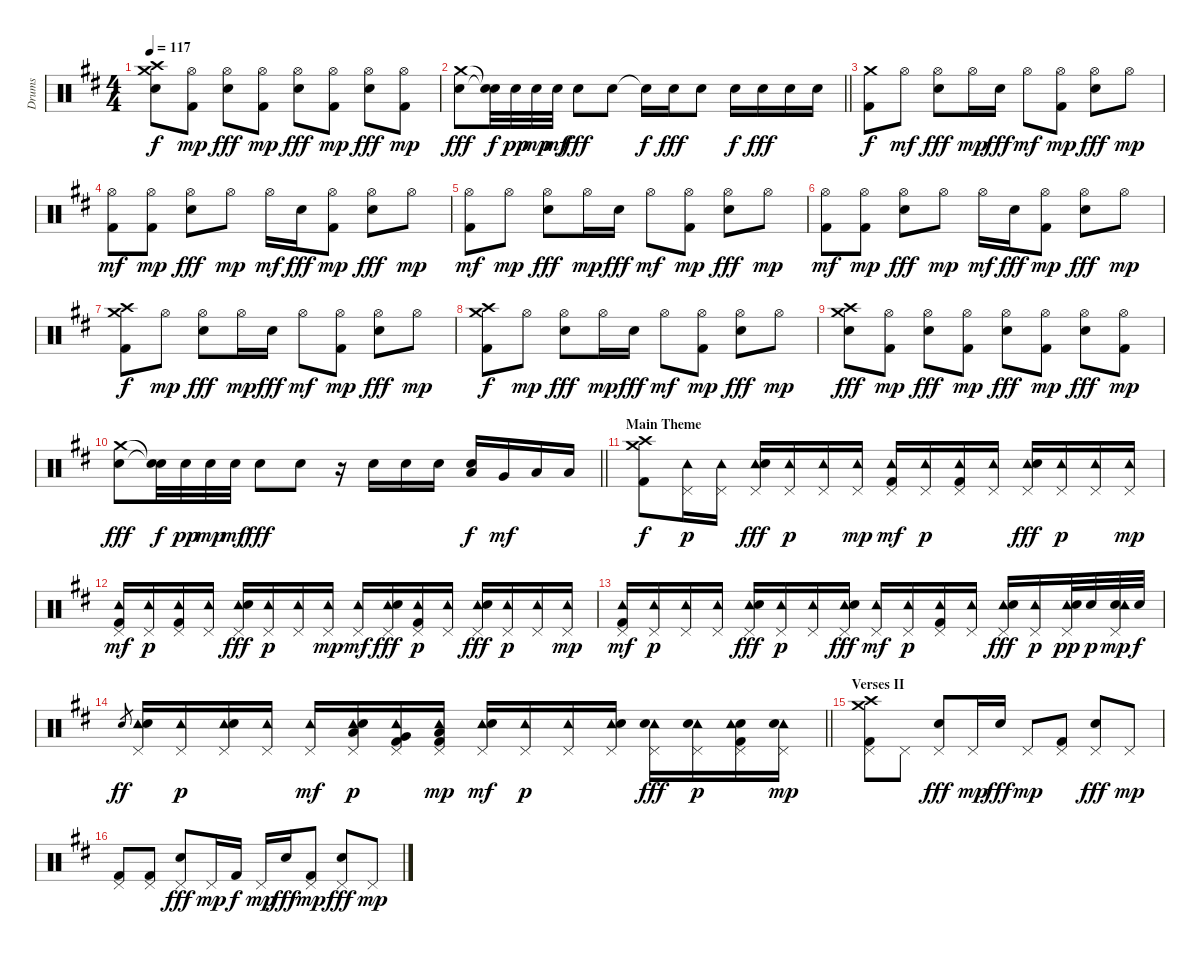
\track ("Drums" "Drums") {instrument percussion}
\staff {score}
\articulation defaults
\ts (4 4)
\tempo 117
\clef neutral
\ks d
("Crash medium (hit)" "Crash high (hit)" "Electric Snare (hit)").8{dy f} ("Hi-Hat (open)" "Kick (hit) 2").8{dy mp} ("Hi-Hat (open)" "Electric Snare (hit)").8{dy fff} ("Hi-Hat (open)" "Kick (hit) 2").8{dy mp} ("Hi-Hat (open)" "Electric Snare (hit)").8{dy fff} ("Hi-Hat (open)" "Kick (hit) 2").8{dy mp} ("Hi-Hat (open)" "Electric Snare (hit)").8{dy fff} ("Hi-Hat (open)" "Kick (hit) 2").8{dy mp} |
\barLineRight lightlight
("Crash medium (hit)" "Electric Snare (hit)").8{dy fff} ("Snare (hit)"{t} "Snare (hit)"{t}).32{dy f} "Electric Snare (hit)".32{dy pp} "Electric Snare (hit)".32{dy mp} "Electric Snare (hit)".32{dy mf} "Electric Snare (hit)".8{dy fff} "Electric Snare (hit)".8 "Snare (hit)"{t}.16{dy f} "Electric Snare (hit)".16{dy fff} "Electric Snare (hit)".8 "Electric Snare (hit)".16{dy f} "Electric Snare (hit)".16{dy fff} "Electric Snare (hit)".16 "Electric Snare (hit)".16 |
("Crash medium (hit)" "Kick (hit) 2").8{dy f} "Hi-Hat (open)".8{dy mf} ("Hi-Hat (open)" "Electric Snare (hit)").8{dy fff} "Hi-Hat (open)".16{dy mp} "Electric Snare (hit)".16{dy fff} "Hi-Hat (open)".8{dy mf} ("Hi-Hat (open)" "Kick (hit) 2").8{dy mp} ("Hi-Hat (open)" "Electric Snare (hit)").8{dy fff} "Hi-Hat (open)".8{dy mp} |
("Hi-Hat (open)" "Kick (hit) 2").8{dy mf} ("Hi-Hat (open)" "Kick (hit) 2").8{dy mp} ("Hi-Hat (open)" "Electric Snare (hit)").8{dy fff} "Hi-Hat (open)".8{dy mp} "Hi-Hat (open)".16{dy mf} "Electric Snare (hit)".16{dy fff} ("Hi-Hat (open)" "Kick (hit) 2").8{dy mp} ("Hi-Hat (open)" "Electric Snare (hit)").8{dy fff} "Hi-Hat (open)".8{dy mp} |
("Hi-Hat (open)" "Kick (hit) 2").8{dy mf} "Hi-Hat (open)".8{dy mp} ("Hi-Hat (open)" "Electric Snare (hit)").8{dy fff} "Hi-Hat (open)".16{dy mp} "Electric Snare (hit)".16{dy fff} "Hi-Hat (open)".8{dy mf} ("Hi-Hat (open)" "Kick (hit) 2").8{dy mp} ("Hi-Hat (open)" "Electric Snare (hit)").8{dy fff} "Hi-Hat (open)".8{dy mp} |
("Hi-Hat (open)" "Kick (hit) 2").8{dy mf} ("Hi-Hat (open)" "Kick (hit) 2").8{dy mp} ("Hi-Hat (open)" "Electric Snare (hit)").8{dy fff} "Hi-Hat (open)".8{dy mp} "Hi-Hat (open)".16{dy mf} "Electric Snare (hit)".16{dy fff} ("Hi-Hat (open)" "Kick (hit) 2").8{dy mp} ("Hi-Hat (open)" "Electric Snare (hit)").8{dy fff} "Hi-Hat (open)".8{dy mp} |
("Crash high (hit)" "Crash medium (hit)" "Kick (hit) 2").8{dy f} "Hi-Hat (open)".8{dy mp} ("Hi-Hat (open)" "Electric Snare (hit)").8{dy fff} "Hi-Hat (open)".16{dy mp} "Electric Snare (hit)".16{dy fff} "Hi-Hat (open)".8{dy mf} ("Hi-Hat (open)" "Kick (hit) 2").8{dy mp} ("Hi-Hat (open)" "Electric Snare (hit)").8{dy fff} "Hi-Hat (open)".8{dy mp} |
("Crash high (hit)" "Crash medium (hit)" "Kick (hit) 2").8{dy f} "Hi-Hat (open)".8{dy mp} ("Hi-Hat (open)" "Electric Snare (hit)").8{dy fff} "Hi-Hat (open)".16{dy mp} "Electric Snare (hit)".16{dy fff} "Hi-Hat (open)".8{dy mf} ("Hi-Hat (open)" "Kick (hit) 2").8{dy mp} ("Hi-Hat (open)" "Electric Snare (hit)").8{dy fff} "Hi-Hat (open)".8{dy mp} |
("Crash medium (hit)" "Crash high (hit)" "Electric Snare (hit)").8{dy fff} ("Hi-Hat (open)" "Kick (hit) 2").8{dy mp} ("Hi-Hat (open)" "Electric Snare (hit)").8{dy fff} ("Hi-Hat (open)" "Kick (hit) 2").8{dy mp} ("Hi-Hat (open)" "Electric Snare (hit)").8{dy fff} ("Hi-Hat (open)" "Kick (hit) 2").8{dy mp} ("Hi-Hat (open)" "Electric Snare (hit)").8{dy fff} ("Hi-Hat (open)" "Kick (hit) 2").8{dy mp} |
\barLineRight lightlight
("Crash medium (hit)" "Electric Snare (hit)").8{dy fff} ("Snare (hit)"{t} "Snare (hit)"{t}).32{dy f} "Electric Snare (hit)".32{dy pp} "Electric Snare (hit)".32{dy mp} "Electric Snare (hit)".32{dy mf} "Electric Snare (hit)".8{dy fff} "Electric Snare (hit)".8 r.16 "Electric Snare (hit)".16 "Electric Snare (hit)".16 "Electric Snare (hit)".16 ("Electric Snare (hit)" "Low Tom (hit)").16{dy f} "Very Low Tom (hit)".16{dy mf} "Low Floor Tom (hit)".16 "Low Floor Tom (hit)".16 |
\section ("" "Main Theme")
("Crash medium (hit)" "Crash high (hit)" "Kick (hit) 2").8{dy f} ("Pedal Hi-Hat (hit)" "Tambourine (hit)").16{dy p} ("Pedal Hi-Hat (hit)" "Tambourine (hit)").16 ("Pedal Hi-Hat (hit)" "Tambourine (hit)" "Electric Snare (hit)").16{dy fff} ("Tambourine (hit)" "Pedal Hi-Hat (hit)").16{dy p} ("Tambourine (hit)" "Pedal Hi-Hat (hit)").16 ("Tambourine (hit)" "Pedal Hi-Hat (hit)").16{dy mp} ("Pedal Hi-Hat (hit)" "Tambourine (hit)" "Kick (hit) 2").16{dy mf} ("Pedal Hi-Hat (hit)" "Tambourine (hit)").16{dy p} ("Pedal Hi-Hat (hit)" "Tambourine (hit)" "Kick (hit) 2").16 ("Tambourine (hit)" "Pedal Hi-Hat (hit)").16 ("Tambourine (hit)" "Pedal Hi-Hat (hit)" "Electric Snare (hit)").16{dy fff} ("Pedal Hi-Hat (hit)" "Tambourine (hit)").16{dy p} ("Pedal Hi-Hat (hit)" "Tambourine (hit)").16 ("Tambourine (hit)" "Pedal Hi-Hat (hit)").16{dy mp} |
("Pedal Hi-Hat (hit)" "Tambourine (hit)" "Kick (hit) 2").16{dy mf} ("Tambourine (hit)" "Pedal Hi-Hat (hit)").16{dy p} ("Pedal Hi-Hat (hit)" "Tambourine (hit)" "Kick (hit) 2").16 ("Tambourine (hit)" "Pedal Hi-Hat (hit)").16 ("Tambourine (hit)" "Pedal Hi-Hat (hit)" "Electric Snare (hit)").16{dy fff} ("Pedal Hi-Hat (hit)" "Tambourine (hit)").16{dy p} ("Pedal Hi-Hat (hit)" "Tambourine (hit)").16 ("Pedal Hi-Hat (hit)" "Tambourine (hit)").16{dy mp} ("Pedal Hi-Hat (hit)" "Tambourine (hit)").16{dy mf} ("Tambourine (hit)" "Pedal Hi-Hat (hit)" "Electric Snare (hit)").16{dy fff} ("Pedal Hi-Hat (hit)" "Tambourine (hit)" "Kick (hit) 2").16{dy p} ("Pedal Hi-Hat (hit)" "Tambourine (hit)").16 ("Tambourine (hit)" "Pedal Hi-Hat (hit)" "Electric Snare (hit)").16{dy fff} ("Tambourine (hit)" "Pedal Hi-Hat (hit)").16{dy p} ("Tambourine (hit)" "Pedal Hi-Hat (hit)").16 ("Tambourine (hit)" "Pedal Hi-Hat (hit)").16{dy mp} |
("Pedal Hi-Hat (hit)" "Tambourine (hit)" "Kick (hit) 2").16{dy mf} ("Tambourine (hit)" "Pedal Hi-Hat (hit)").16{dy p} ("Pedal Hi-Hat (hit)" "Tambourine (hit)").16 ("Pedal Hi-Hat (hit)" "Tambourine (hit)").16 ("Tambourine (hit)" "Pedal Hi-Hat (hit)" "Electric Snare (hit)").16{dy fff} ("Tambourine (hit)" "Pedal Hi-Hat (hit)").16{dy p} ("Pedal Hi-Hat (hit)" "Tambourine (hit)").16 ("Pedal Hi-Hat (hit)" "Tambourine (hit)" "Electric Snare (hit)").16{dy fff} ("Pedal Hi-Hat (hit)" "Tambourine (hit)").16{dy mf} ("Pedal Hi-Hat (hit)" "Tambourine (hit)").16{dy p} ("Tambourine (hit)" "Pedal Hi-Hat (hit)" "Kick (hit) 2").16 ("Pedal Hi-Hat (hit)" "Tambourine (hit)").16 ("Pedal Hi-Hat (hit)" "Tambourine (hit)" "Electric Snare (hit)").16{dy fff} ("Tambourine (hit)" "Pedal Hi-Hat (hit)").16{dy p} ("Tambourine (hit)" "Pedal Hi-Hat (hit)" "Electric Snare (hit)").32{dy pp} "Electric Snare (hit)".32{dy p} ("Electric Snare (hit)" "Tambourine (hit)" "Pedal Hi-Hat (hit)").32{dy mp} "Electric Snare (hit)".32{dy f} |
\barLineRight lightlight "Electric Snare (hit)".8{gr dy ff}
("Tambourine (hit)" "Pedal Hi-Hat (hit)" "Electric Snare (hit)").16 ("Tambourine (hit)" "Pedal Hi-Hat (hit)").16{dy p} ("Pedal Hi-Hat (hit)" "Tambourine (hit)" "Electric Snare (hit)").16 ("Pedal Hi-Hat (hit)" "Tambourine (hit)").16 ("Pedal Hi-Hat (hit)" "Tambourine (hit)").16{dy mf} ("Tambourine (hit)" "Pedal Hi-Hat (hit)" "Electric Snare (hit)" "Low Tom (hit)").16{dy p} ("Tambourine (hit)" "Pedal Hi-Hat (hit)" "Kick (hit) 2" "Very Low Tom (hit)").16 ("Tambourine (hit)" "Pedal Hi-Hat (hit)" "Kick (hit) 2" "Low Floor Tom (hit)").16{dy mp} ("Pedal Hi-Hat (hit)" "Tambourine (hit)" "Electric Snare (hit)").16{dy mf} ("Pedal Hi-Hat (hit)" "Tambourine (hit)").16{dy p} ("Pedal Hi-Hat (hit)" "Tambourine (hit)").16 ("Tambourine (hit)" "Pedal Hi-Hat (hit)" "Electric Snare (hit)").16 ("Tambourine (hit)" "Pedal Hi-Hat (hit)" "Electric Snare (hit)").16{dy fff} ("Pedal Hi-Hat (hit)" "Tambourine (hit)" "Electric Snare (hit)").16{dy p} ("Kick (hit) 2" "Electric Snare (hit)" "Pedal Hi-Hat (hit)" "Tambourine (hit)").16 ("Tambourine (hit)" "Pedal Hi-Hat (hit)" "Electric Snare (hit)").16{dy mp} |
\section ("" "Verses II")
("Pedal Hi-Hat (hit)" "Crash medium (hit)" "Crash high (hit)" "Kick (hit) 2").8 "Pedal Hi-Hat (hit)".8 ("Pedal Hi-Hat (hit)" "Electric Snare (hit)").8{dy fff} "Pedal Hi-Hat (hit)".16{dy mp} "Electric Snare (hit)".16{dy fff} "Pedal Hi-Hat (hit)".8{dy mp} ("Pedal Hi-Hat (hit)" "Kick (hit) 2").8 ("Pedal Hi-Hat (hit)" "Electric Snare (hit)").8{dy fff} "Pedal Hi-Hat (hit)".8{dy mp} |
("Pedal Hi-Hat (hit)" "Kick (hit) 2").8 ("Pedal Hi-Hat (hit)" "Kick (hit) 2").8 ("Pedal Hi-Hat (hit)" "Electric Snare (hit)").8{dy fff} "Pedal Hi-Hat (hit)".16{dy mp} "Kick (hit) 2".16{dy f} "Pedal Hi-Hat (hit)".16{dy mp} "Electric Snare (hit)".16{dy fff} ("Pedal Hi-Hat (hit)" "Kick (hit) 2").8{dy mp} ("Pedal Hi-Hat (hit)" "Electric Snare (hit)").8{dy fff} "Pedal Hi-Hat (hit)".8{dy mp}
